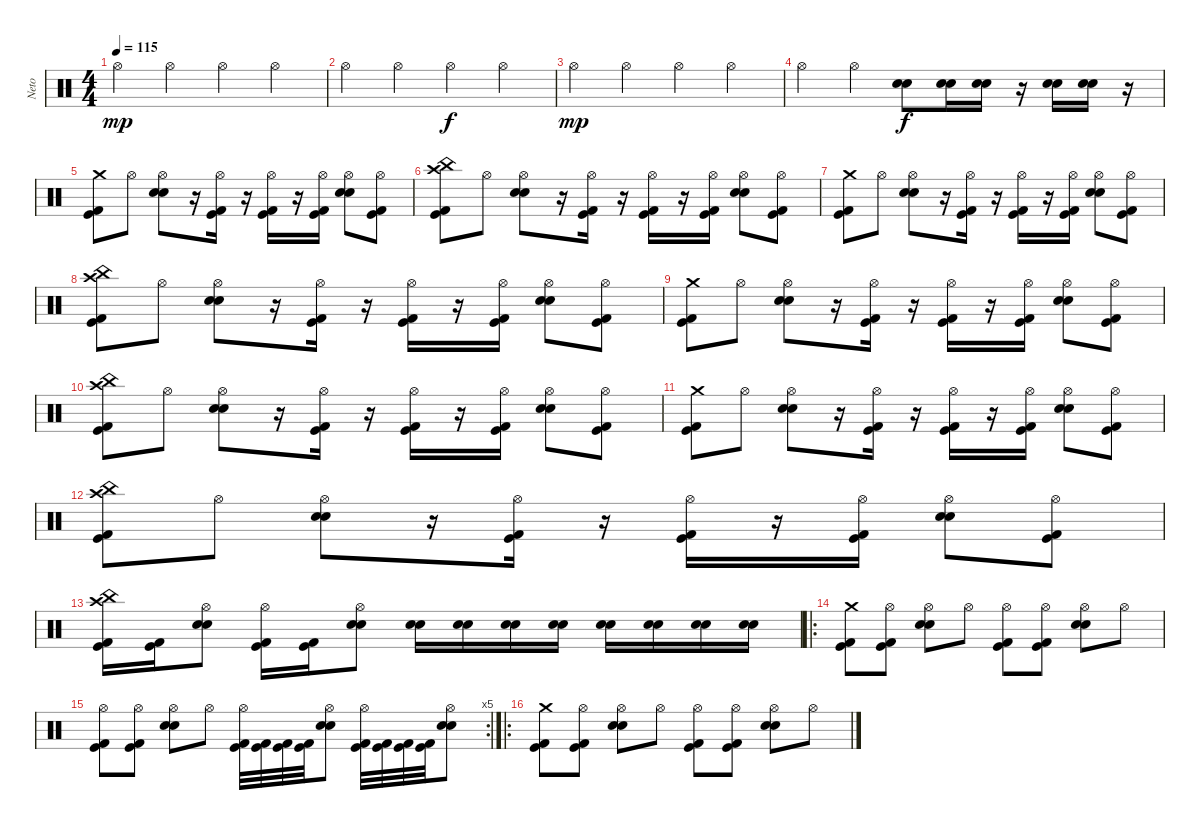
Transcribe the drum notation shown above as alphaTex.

\track ("Neto" "Neto") {instrument percussion}
\staff {score}
\articulation defaults
\ts (4 4)
\tempo 115
\clef neutral
\ks c "Hi-Hat (open)".4{dy mp} "Hi-Hat (open)".4 "Hi-Hat (open)".4 "Hi-Hat (open)".4
|
"Hi-Hat (open)".4 "Hi-Hat (open)".4 "Hi-Hat (open)".4{dy f} "Hi-Hat (open)".4 |
"Hi-Hat (open)".4{dy mp} "Hi-Hat (open)".4 "Hi-Hat (open)".4 "Hi-Hat (open)".4 |
"Hi-Hat (open)".4 "Hi-Hat (open)".4 ("Snare (hit) 2" "Snare (hit) 2").8{dy f} ("Snare (hit) 2" "Snare (hit) 2").16 ("Snare (hit) 2" "Snare (hit) 2").16 r.16 ("Snare (hit) 2" "Snare (hit) 2").16 ("Snare (hit) 2" "Snare (hit) 2").16 r.16 |
("Crash medium (hit)" "Kick (hit)" "Kick (hit) 2").8 "Hi-Hat (open)".8 ("Hi-Hat (open)" "Snare (hit) 2" "Snare (hit) 2").8 r.16 ("Hi-Hat (open)" "Kick (hit)" "Kick (hit) 2").16 r.16 ("Hi-Hat (open)" "Kick (hit)" "Kick (hit) 2").16 r.16 ("Hi-Hat (open)" "Kick (hit)" "Kick (hit) 2").16 ("Hi-Hat (open)" "Snare (hit) 2" "Snare (hit) 2").8 ("Hi-Hat (open)" "Kick (hit)" "Kick (hit) 2").8 |
("Crash high (hit)" "China (hit)" "Kick (hit)" "Kick (hit) 2").8 "Hi-Hat (open)".8 ("Hi-Hat (open)" "Snare (hit) 2" "Snare (hit) 2").8 r.16 ("Hi-Hat (open)" "Kick (hit)" "Kick (hit) 2").16 r.16 ("Hi-Hat (open)" "Kick (hit)" "Kick (hit) 2").16 r.16 ("Hi-Hat (open)" "Kick (hit)" "Kick (hit) 2").16 ("Hi-Hat (open)" "Snare (hit) 2" "Snare (hit) 2").8 ("Hi-Hat (open)" "Kick (hit)" "Kick (hit) 2").8 |
("Crash medium (hit)" "Kick (hit)" "Kick (hit) 2").8 "Hi-Hat (open)".8 ("Hi-Hat (open)" "Snare (hit) 2" "Snare (hit) 2").8 r.16 ("Hi-Hat (open)" "Kick (hit)" "Kick (hit) 2").16 r.16 ("Hi-Hat (open)" "Kick (hit)" "Kick (hit) 2").16 r.16 ("Hi-Hat (open)" "Kick (hit)" "Kick (hit) 2").16 ("Hi-Hat (open)" "Snare (hit) 2" "Snare (hit) 2").8 ("Hi-Hat (open)" "Kick (hit)" "Kick (hit) 2").8 |
("Crash high (hit)" "China (hit)" "Kick (hit)" "Kick (hit) 2").8 "Hi-Hat (open)".8 ("Hi-Hat (open)" "Snare (hit) 2" "Snare (hit) 2").8 r.16 ("Hi-Hat (open)" "Kick (hit)" "Kick (hit) 2").16 r.16 ("Hi-Hat (open)" "Kick (hit)" "Kick (hit) 2").16 r.16 ("Hi-Hat (open)" "Kick (hit)" "Kick (hit) 2").16 ("Hi-Hat (open)" "Snare (hit) 2" "Snare (hit) 2").8 ("Hi-Hat (open)" "Kick (hit)" "Kick (hit) 2").8 |
("Crash medium (hit)" "Kick (hit)" "Kick (hit) 2").8 "Hi-Hat (open)".8 ("Hi-Hat (open)" "Snare (hit) 2" "Snare (hit) 2").8 r.16 ("Hi-Hat (open)" "Kick (hit)" "Kick (hit) 2").16 r.16 ("Hi-Hat (open)" "Kick (hit)" "Kick (hit) 2").16 r.16 ("Hi-Hat (open)" "Kick (hit)" "Kick (hit) 2").16 ("Hi-Hat (open)" "Snare (hit) 2" "Snare (hit) 2").8 ("Hi-Hat (open)" "Kick (hit)" "Kick (hit) 2").8 |
("Crash high (hit)" "China (hit)" "Kick (hit)" "Kick (hit) 2").8 "Hi-Hat (open)".8 ("Hi-Hat (open)" "Snare (hit) 2" "Snare (hit) 2").8 r.16 ("Hi-Hat (open)" "Kick (hit)" "Kick (hit) 2").16 r.16 ("Hi-Hat (open)" "Kick (hit)" "Kick (hit) 2").16 r.16 ("Hi-Hat (open)" "Kick (hit)" "Kick (hit) 2").16 ("Hi-Hat (open)" "Snare (hit) 2" "Snare (hit) 2").8 ("Hi-Hat (open)" "Kick (hit)" "Kick (hit) 2").8 |
("Crash medium (hit)" "Kick (hit)" "Kick (hit) 2").8 "Hi-Hat (open)".8 ("Hi-Hat (open)" "Snare (hit) 2" "Snare (hit) 2").8 r.16 ("Hi-Hat (open)" "Kick (hit)" "Kick (hit) 2").16 r.16 ("Hi-Hat (open)" "Kick (hit)" "Kick (hit) 2").16 r.16 ("Hi-Hat (open)" "Kick (hit)" "Kick (hit) 2").16 ("Hi-Hat (open)" "Snare (hit) 2" "Snare (hit) 2").8 ("Hi-Hat (open)" "Kick (hit)" "Kick (hit) 2").8 |
("Crash high (hit)" "China (hit)" "Kick (hit)" "Kick (hit) 2").8 "Hi-Hat (open)".8 ("Hi-Hat (open)" "Snare (hit) 2" "Snare (hit) 2").8 r.16 ("Hi-Hat (open)" "Kick (hit)" "Kick (hit) 2").16 r.16 ("Hi-Hat (open)" "Kick (hit)" "Kick (hit) 2").16 r.16 ("Hi-Hat (open)" "Kick (hit)" "Kick (hit) 2").16 ("Hi-Hat (open)" "Snare (hit) 2" "Snare (hit) 2").8 ("Hi-Hat (open)" "Kick (hit)" "Kick (hit) 2").8 |
("Crash high (hit)" "China (hit)" "Kick (hit)" "Kick (hit) 2").16 ("Kick (hit)" "Kick (hit) 2").16 ("Hi-Hat (open)" "Snare (hit) 2" "Snare (hit) 2").8 ("Hi-Hat (open)" "Kick (hit)" "Kick (hit) 2").16 ("Kick (hit)" "Kick (hit) 2").16 ("Hi-Hat (open)" "Snare (hit) 2" "Snare (hit) 2").8 ("Snare (hit) 2" "Snare (hit) 2").16 ("Snare (hit) 2" "Snare (hit) 2").16 ("Snare (hit) 2" "Snare (hit) 2").16 ("Snare (hit) 2" "Snare (hit) 2").16 ("Snare (hit) 2" "Snare (hit) 2").16 ("Snare (hit) 2" "Snare (hit) 2").16 ("Snare (hit) 2" "Snare (hit) 2").16 ("Snare (hit) 2" "Snare (hit) 2").16 |
\ro
("Crash medium (hit)" "Kick (hit)" "Kick (hit) 2").8 ("Hi-Hat (open)" "Kick (hit)" "Kick (hit) 2").8 ("Hi-Hat (open)" "Snare (hit) 2" "Snare (hit) 2").8 "Hi-Hat (open)".8 ("Hi-Hat (open)" "Kick (hit)" "Kick (hit) 2").8 ("Hi-Hat (open)" "Kick (hit)" "Kick (hit) 2").8 ("Hi-Hat (open)" "Snare (hit) 2" "Snare (hit) 2").8 "Hi-Hat (open)".8 |
\rc 5
("Hi-Hat (open)" "Kick (hit)" "Kick (hit) 2").8 ("Hi-Hat (open)" "Kick (hit)" "Kick (hit) 2").8 ("Hi-Hat (open)" "Snare (hit) 2" "Snare (hit) 2").8 "Hi-Hat (open)".8 ("Hi-Hat (open)" "Kick (hit)" "Kick (hit) 2").32 ("Kick (hit)" "Kick (hit) 2").32 ("Kick (hit)" "Kick (hit) 2").32 ("Kick (hit)" "Kick (hit) 2").32 ("Hi-Hat (open)" "Snare (hit) 2" "Snare (hit) 2").8 ("Hi-Hat (open)" "Kick (hit)" "Kick (hit) 2").32 ("Kick (hit)" "Kick (hit) 2").32 ("Kick (hit)" "Kick (hit) 2").32 ("Kick (hit)" "Kick (hit) 2").32 ("Hi-Hat (open)" "Snare (hit) 2" "Snare (hit) 2").8 |
\ro
("Crash medium (hit)" "Kick (hit)" "Kick (hit) 2").8 ("Hi-Hat (open)" "Kick (hit)" "Kick (hit) 2").8 ("Hi-Hat (open)" "Snare (hit) 2" "Snare (hit) 2").8 "Hi-Hat (open)".8 ("Hi-Hat (open)" "Kick (hit)" "Kick (hit) 2").8 ("Hi-Hat (open)" "Kick (hit)" "Kick (hit) 2").8 ("Hi-Hat (open)" "Snare (hit) 2" "Snare (hit) 2").8 "Hi-Hat (open)".8
